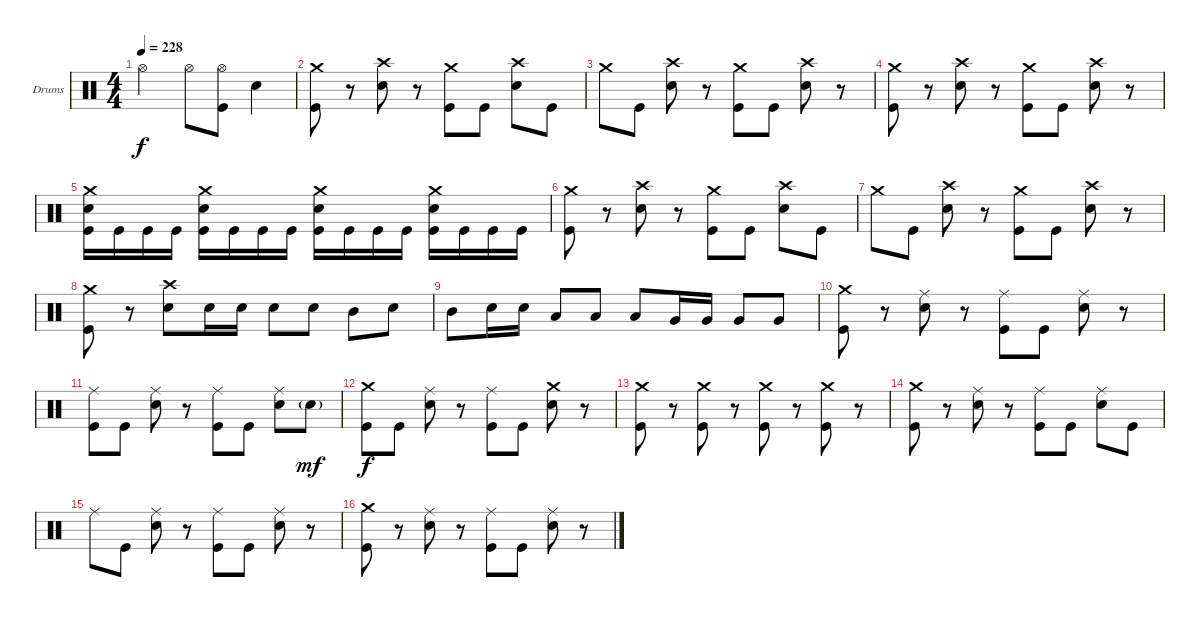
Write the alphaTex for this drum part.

\bracketExtendMode groupsimilarinstruments
\firstSystemTrackNameOrientation horizontal
\otherSystemsTrackNameOrientation horizontal
\track ("Drumkit" "Drums") {instrument percussion}
\staff {score}
\articulation defaults
\ts (4 4)
\tempo 228
\clef neutral
\ks c "Hi-Hat (open)".2{dy f} "Hi-Hat (open)".8
("Hi-Hat (open)" "Kick (hit)").8 "Snare (hit) 2".4 |
("Crash medium (hit)" "Kick (hit)").8 r.8 ("Crash high (hit)" "Snare (hit) 2").8 r.8 ("Crash medium (hit)" "Kick (hit)").8 "Kick (hit)".8 ("Crash high (hit)" "Snare (hit) 2").8 "Kick (hit)".8 |
"Crash medium (hit)".8 "Kick (hit)".8 ("Crash high (hit)" "Snare (hit) 2").8 r.8 ("Crash medium (hit)" "Kick (hit)").8 "Kick (hit)".8 ("Crash high (hit)" "Snare (hit) 2").8 r.8 |
("Crash medium (hit)" "Kick (hit)").8 r.8 ("Crash high (hit)" "Snare (hit) 2").8 r.8 ("Crash medium (hit)" "Kick (hit)").8 "Kick (hit)".8 ("Crash high (hit)" "Snare (hit) 2").8 r.8 |
("Crash medium (hit)" "Snare (hit) 2" "Kick (hit)").16 "Kick (hit)".16 "Kick (hit)".16 "Kick (hit)".16 ("Crash medium (hit)" "Snare (hit) 2" "Kick (hit)").16 "Kick (hit)".16 "Kick (hit)".16 "Kick (hit)".16 ("Crash medium (hit)" "Snare (hit) 2" "Kick (hit)").16 "Kick (hit)".16 "Kick (hit)".16 "Kick (hit)".16 ("Crash medium (hit)" "Snare (hit) 2" "Kick (hit)").16 "Kick (hit)".16 "Kick (hit)".16 "Kick (hit)".16 |
("Crash medium (hit)" "Kick (hit)").8 r.8 ("Crash high (hit)" "Snare (hit) 2").8 r.8 ("Crash medium (hit)" "Kick (hit)").8 "Kick (hit)".8 ("Crash high (hit)" "Snare (hit) 2").8 "Kick (hit)".8 |
"Crash medium (hit)".8 "Kick (hit)".8 ("Crash high (hit)" "Snare (hit) 2").8 r.8 ("Crash medium (hit)" "Kick (hit)").8 "Kick (hit)".8 ("Crash high (hit)" "Snare (hit) 2").8 r.8 |
("Crash medium (hit)" "Kick (hit)").8 r.8 ("Crash high (hit)" "Snare (hit) 2").8 "Snare (hit) 2".16 "Snare (hit) 2".16 "Snare (hit) 2".8 "Snare (hit) 2".8 "Mid Tom (hit)".8 "Snare (hit) 2".8 |
"Mid Tom (hit)".8 "Snare (hit) 2".16 "Snare (hit) 2".16 "Low Tom (hit)".8 "Low Tom (hit)".8 "Low Tom (hit)".8 "Very Low Tom (hit)".16 "Very Low Tom (hit)".16 "Very Low Tom (hit)".8 "Very Low Tom (hit)".8 |
("Crash medium (hit)" "Kick (hit)").8 r.8 ("Ride (middle)" "Snare (hit) 2").8 r.8 ("Ride (middle)" "Kick (hit)").8 "Kick (hit)".8 ("Ride (middle)" "Snare (hit) 2").8 r.8 |
("Ride (middle)" "Kick (hit)").8 "Kick (hit)".8 ("Ride (middle)" "Snare (hit) 2").8 r.8 ("Ride (middle)" "Kick (hit)").8 "Kick (hit)".8 ("Ride (middle)" "Snare (hit) 2").8 "Snare (hit) 2"{g}.8{dy mf} |
("Crash medium (hit)" "Kick (hit)").8{dy f} "Kick (hit)".8 ("Ride (middle)" "Snare (hit) 2").8 r.8 ("Ride (middle)" "Kick (hit)").8 "Kick (hit)".8 ("Crash medium (hit)" "Snare (hit) 2").8 r.8 |
("Crash medium (hit)" "Kick (hit)").8 r.8 ("Crash medium (hit)" "Kick (hit)").8 r.8 ("Crash medium (hit)" "Kick (hit)").8 r.8 ("Crash medium (hit)" "Kick (hit)").8 r.8 |
("Crash medium (hit)" "Kick (hit)").8 r.8 ("Ride (middle)" "Snare (hit) 2").8 r.8 ("Ride (middle)" "Kick (hit)").8 "Kick (hit)".8 ("Ride (middle)" "Snare (hit) 2").8 "Kick (hit)".8 |
"Ride (middle)".8 "Kick (hit)".8 ("Ride (middle)" "Snare (hit) 2").8 r.8 ("Ride (middle)" "Kick (hit)").8 "Kick (hit)".8 ("Ride (middle)" "Snare (hit) 2").8 r.8 |
("Crash medium (hit)" "Kick (hit)").8 r.8 ("Ride (middle)" "Snare (hit) 2").8 r.8 ("Ride (middle)" "Kick (hit)").8 "Kick (hit)".8 ("Ride (middle)" "Snare (hit) 2").8 r.8
